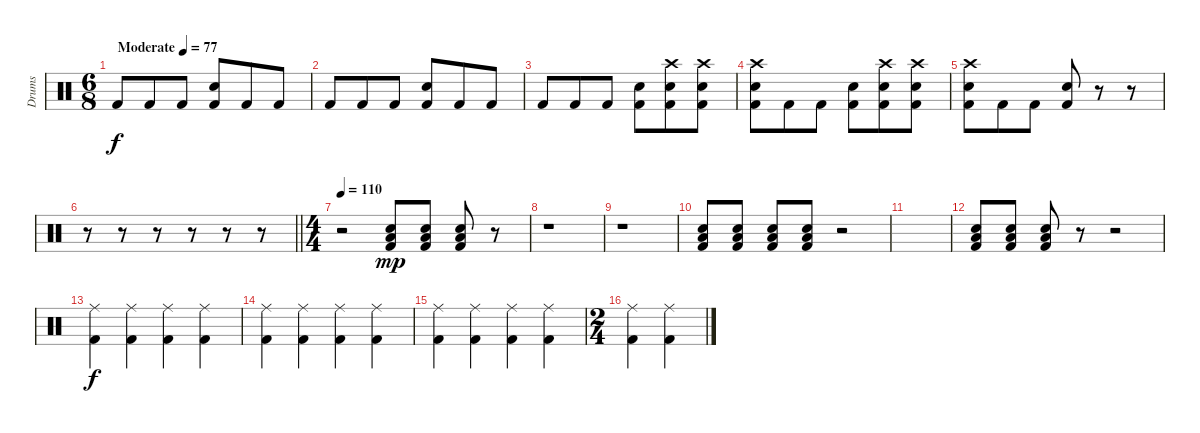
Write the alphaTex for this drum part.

\track ("Drums" "Drums") {instrument percussion}
\staff {score}
\articulation defaults
\ts (6 8)
\tempo (77 "Moderate")
\clef neutral
\ks c "Kick (hit) 2".8{dy f} "Kick (hit) 2".8 "Kick (hit) 2".8
("Snare (hit) 2" "Kick (hit) 2").8 "Kick (hit) 2".8 "Kick (hit) 2".8 |
"Kick (hit) 2".8 "Kick (hit) 2".8 "Kick (hit) 2".8 ("Snare (hit) 2" "Kick (hit) 2").8 "Kick (hit) 2".8 "Kick (hit) 2".8 |
"Kick (hit) 2".8 "Kick (hit) 2".8 "Kick (hit) 2".8 ("Snare (hit) 2" "Kick (hit) 2").8 ("Crash high (hit)" "Snare (hit) 2" "Kick (hit) 2").8 ("Crash high (hit)" "Snare (hit) 2" "Kick (hit) 2").8 |
("Crash high (hit)" "Snare (hit) 2" "Kick (hit) 2").8 "Kick (hit) 2".8 "Kick (hit) 2".8 ("Snare (hit) 2" "Kick (hit) 2").8 ("Crash high (hit)" "Snare (hit) 2" "Kick (hit) 2").8 ("Crash high (hit)" "Snare (hit) 2" "Kick (hit) 2").8 |
("Crash high (hit)" "Snare (hit) 2" "Kick (hit) 2").8 "Kick (hit) 2".8 "Kick (hit) 2".8 ("Snare (hit) 2" "Kick (hit) 2").8 r.8 r.8 |
\barLineRight lightlight
r.8 r.8 r.8 r.8 r.8 r.8 |
\ts (4 4)
\tempo 110
r.2 ("Snare (hit) 2" "Low Floor Tom (hit)" "Kick (hit) 2").8{dy mp} ("Snare (hit) 2" "Low Floor Tom (hit)" "Kick (hit) 2").8 ("Snare (hit) 2" "Low Floor Tom (hit)" "Kick (hit) 2").8 r.8 |
r.1 |
r.1 |
("Snare (hit) 2" "Low Floor Tom (hit)" "Kick (hit) 2").8 ("Snare (hit) 2" "Low Floor Tom (hit)" "Kick (hit) 2").8 ("Snare (hit) 2" "Low Floor Tom (hit)" "Kick (hit) 2").8 ("Snare (hit) 2" "Low Floor Tom (hit)" "Kick (hit) 2").8 r.2 |
|
("Low Floor Tom (hit)" "Snare (hit) 2" "Kick (hit) 2").8 ("Low Floor Tom (hit)" "Snare (hit) 2" "Kick (hit) 2").8 ("Low Floor Tom (hit)" "Snare (hit) 2" "Kick (hit) 2").8 r.8 r.2 |
("Ride (middle)" "Kick (hit) 2").4{dy f} ("Ride (middle)" "Kick (hit) 2").4 ("Ride (middle)" "Kick (hit) 2").4 ("Ride (middle)" "Kick (hit) 2").4 |
("Ride (middle)" "Kick (hit) 2").4 ("Ride (middle)" "Kick (hit) 2").4 ("Ride (middle)" "Kick (hit) 2").4 ("Ride (middle)" "Kick (hit) 2").4 |
("Ride (middle)" "Kick (hit) 2").4 ("Ride (middle)" "Kick (hit) 2").4 ("Ride (middle)" "Kick (hit) 2").4 ("Ride (middle)" "Kick (hit) 2").4 |
\ts (2 4)
("Ride (middle)" "Kick (hit) 2").4 ("Ride (middle)" "Kick (hit) 2").4
